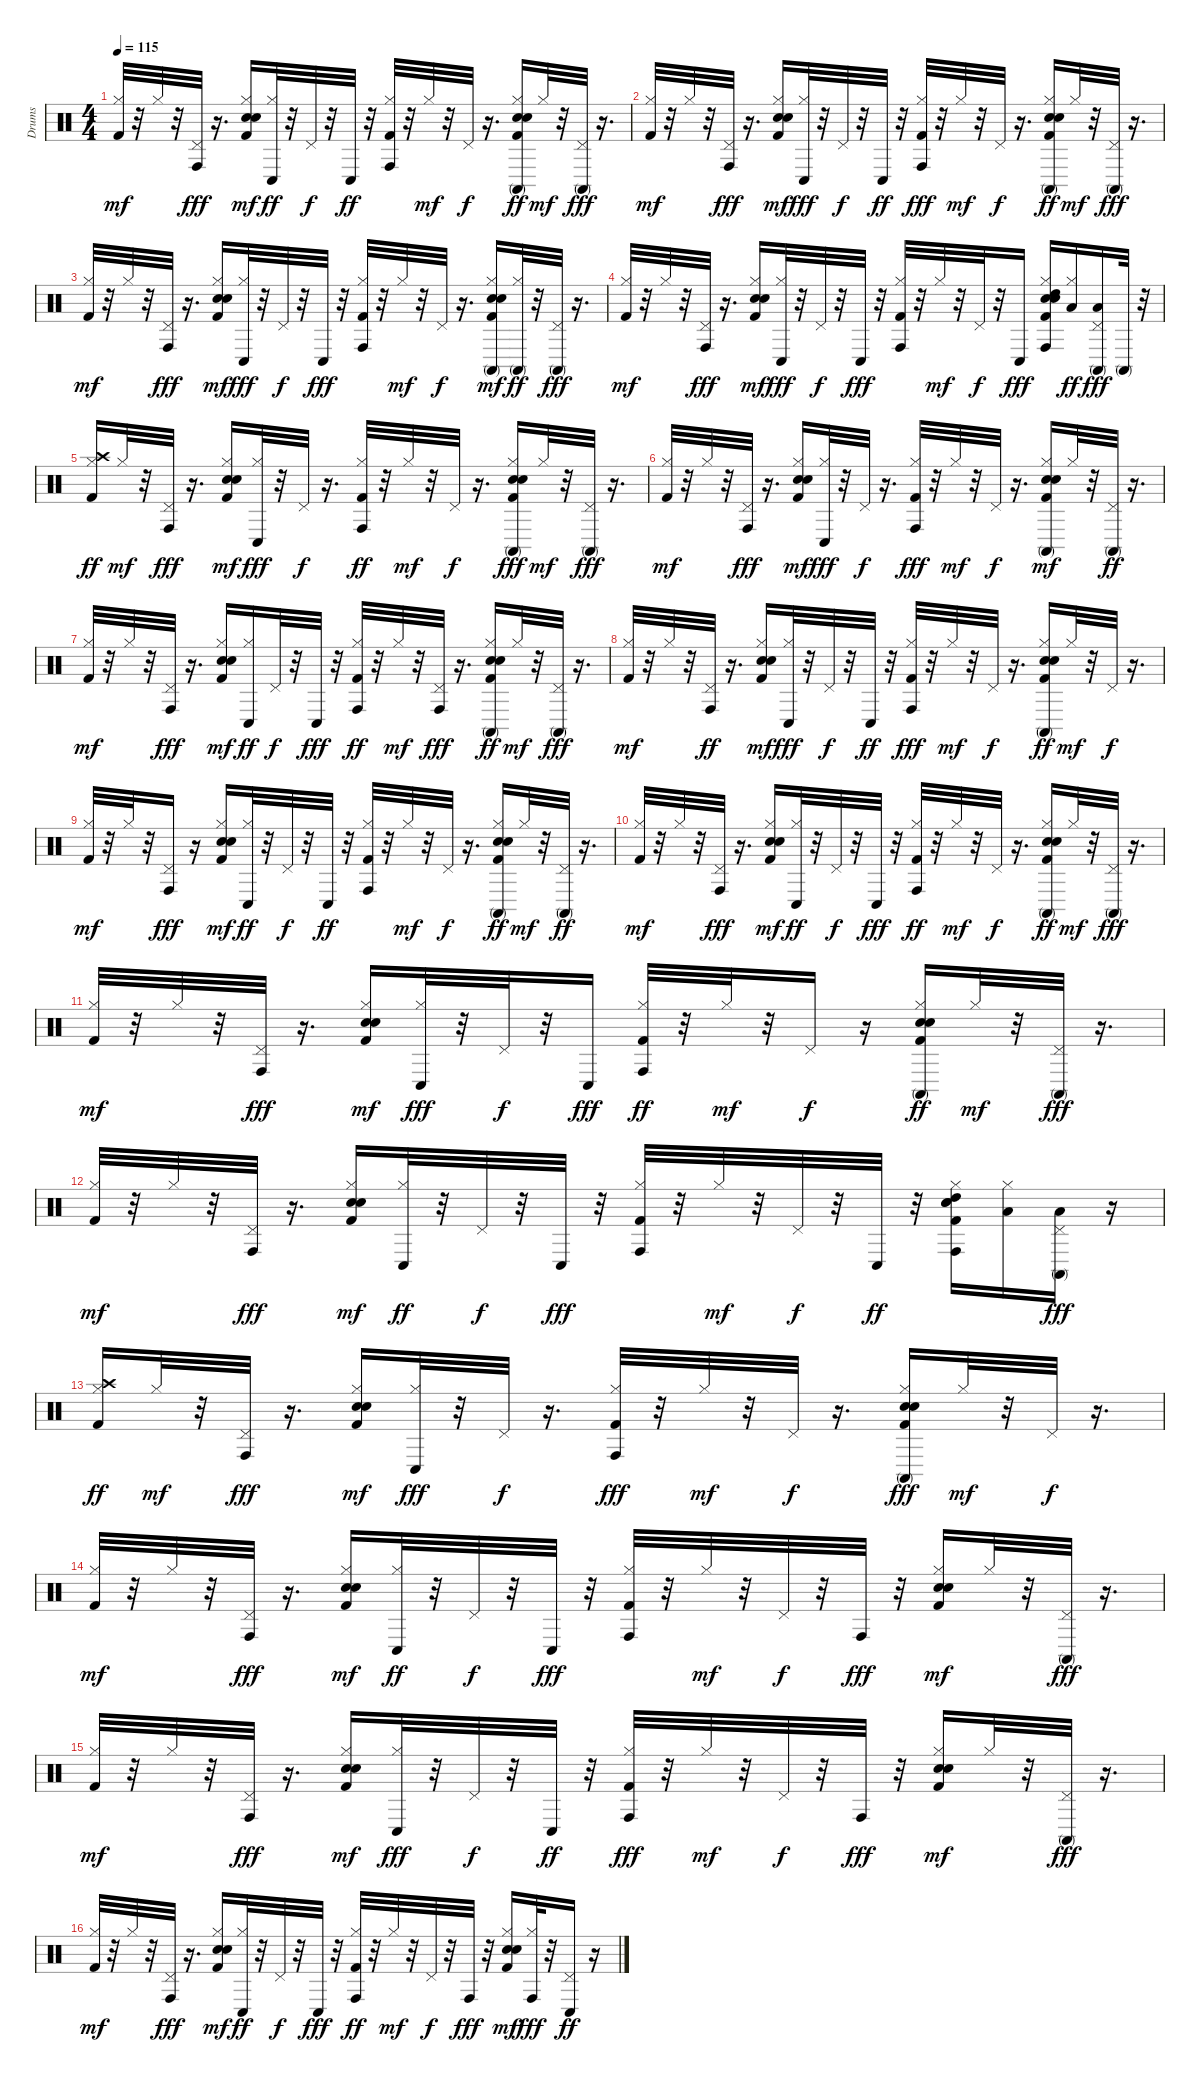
\track ("Drums" "Drums") {instrument percussion}
\staff {score}
\articulation defaults
\ts (4 4)
\tempo 115
\clef neutral
\ks c
("Kick (hit) 2" "Hi-Hat (closed)").32{dy mf} r.32 "Hi-Hat (closed)".32 r.32 ("Pedal Hi-Hat (hit)" "Conga high (hit)").32{dy fff} r.16{d} ("Kick (hit) 2" "Snare (hit) 2" "Hand Clap (hit)" "Hi-Hat (closed)").16{dy mf} ("Hi-Hat (closed)" "Conga low (hit)").32{dy ff} r.32 "Pedal Hi-Hat (hit)".32{dy f} r.32 "Conga low (hit)".32{dy ff} r.32 ("Kick (hit) 2" "Hi-Hat (closed)" "Conga high (hit)").32 r.32 "Hi-Hat (closed)".32{dy mf} r.32 "Pedal Hi-Hat (hit)".32{dy f} r.16{d} ("Kick (hit) 2" "Snare (hit) 2" "Hand Clap (hit)" "Hi-Hat (closed)" "Conga high (mute)").16{dy ff} "Hi-Hat (closed)".32{dy mf} r.32 ("Pedal Hi-Hat (hit)" "Conga high (mute)").32{dy fff} r.16{d} |
("Kick (hit) 2" "Hi-Hat (closed)").32{dy mf} r.32 "Hi-Hat (closed)".32 r.32 ("Pedal Hi-Hat (hit)" "Conga high (hit)").32{dy fff} r.16{d} ("Kick (hit) 2" "Snare (hit) 2" "Hand Clap (hit)" "Hi-Hat (closed)").16{dy mf} ("Hi-Hat (closed)" "Conga low (hit)").32{dy fff} r.32 "Pedal Hi-Hat (hit)".32{dy f} r.32 "Conga low (hit)".32{dy ff} r.32 ("Kick (hit) 2" "Hi-Hat (closed)" "Conga high (hit)").32{dy fff} r.32 "Hi-Hat (closed)".32{dy mf} r.32 "Pedal Hi-Hat (hit)".32{dy f} r.16{d} ("Kick (hit) 2" "Snare (hit) 2" "Hand Clap (hit)" "Hi-Hat (closed)" "Conga high (mute)").16{dy ff} "Hi-Hat (closed)".32{dy mf} r.32 ("Pedal Hi-Hat (hit)" "Conga high (mute)").32{dy fff} r.16{d} |
("Kick (hit) 2" "Hi-Hat (closed)").32{dy mf} r.32 "Hi-Hat (closed)".32 r.32 ("Pedal Hi-Hat (hit)" "Conga high (hit)").32{dy fff} r.16{d} ("Kick (hit) 2" "Snare (hit) 2" "Hand Clap (hit)" "Hi-Hat (closed)").16{dy mf} ("Hi-Hat (closed)" "Conga low (hit)").32{dy fff} r.32 "Pedal Hi-Hat (hit)".32{dy f} r.32 "Conga low (hit)".32{dy fff} r.32 ("Kick (hit) 2" "Hi-Hat (closed)" "Conga high (hit)").32 r.32 "Hi-Hat (closed)".32{dy mf} r.32 "Pedal Hi-Hat (hit)".32{dy f} r.16{d} ("Kick (hit) 2" "Snare (hit) 2" "Hand Clap (hit)" "Hi-Hat (closed)" "Conga high (mute)").16{dy mf} ("Hi-Hat (closed)" "Conga high (mute)").32{dy ff} r.32 ("Pedal Hi-Hat (hit)" "Conga high (mute)").32{dy fff} r.16{d} |
("Kick (hit) 2" "Hi-Hat (closed)").32{dy mf} r.32 "Hi-Hat (closed)".32 r.32 ("Pedal Hi-Hat (hit)" "Conga high (hit)").32{dy fff} r.16{d} ("Kick (hit) 2" "Snare (hit) 2" "Hand Clap (hit)" "Hi-Hat (closed)").16{dy mf} ("Hi-Hat (closed)" "Conga low (hit)").32{dy fff} r.32 "Pedal Hi-Hat (hit)".32{dy f} r.32 "Conga low (hit)".32{dy fff} r.32 ("Kick (hit) 2" "Hi-Hat (closed)" "Conga high (hit)").32 r.32 "Hi-Hat (closed)".32{dy mf} r.32 "Pedal Hi-Hat (hit)".32{dy f} r.32 "Conga low (hit)".16{dy fff} ("Kick (hit) 2" "Snare (hit) 2" "Hand Clap (hit)" "Hi-Hat (closed)" "High Tom (hit)" "Conga high (hit)").16 ("Hi-Hat (closed)" "Low Tom (hit)").16{dy ff} ("Pedal Hi-Hat (hit)" "Low Floor Tom (hit)" "Conga high (mute)").16{dy fff} "Conga high (mute)".32 r.32 |
("Kick (hit) 2" "Hi-Hat (closed)" "Crash high (hit)").16{dy ff} "Hi-Hat (closed)".32{dy mf} r.32 ("Pedal Hi-Hat (hit)" "Conga high (hit)").32{dy fff} r.16{d} ("Kick (hit) 2" "Snare (hit) 2" "Hand Clap (hit)" "Hi-Hat (closed)").16{dy mf} ("Hi-Hat (closed)" "Conga low (hit)").32{dy fff} r.32 "Pedal Hi-Hat (hit)".32{dy f} r.16{d} ("Kick (hit) 2" "Hi-Hat (closed)" "Conga high (hit)").32{dy ff} r.32 "Hi-Hat (closed)".32{dy mf} r.32 "Pedal Hi-Hat (hit)".32{dy f} r.16{d} ("Kick (hit) 2" "Snare (hit) 2" "Hand Clap (hit)" "Hi-Hat (closed)" "Conga high (mute)").16{dy fff} "Hi-Hat (closed)".32{dy mf} r.32 ("Pedal Hi-Hat (hit)" "Conga high (mute)").32{dy fff} r.16{d} |
("Kick (hit) 2" "Hi-Hat (closed)").32{dy mf} r.32 "Hi-Hat (closed)".32 r.32 ("Pedal Hi-Hat (hit)" "Conga high (hit)").32{dy fff} r.16{d} ("Kick (hit) 2" "Snare (hit) 2" "Hand Clap (hit)" "Hi-Hat (closed)").16{dy mf} ("Hi-Hat (closed)" "Conga low (hit)").32{dy fff} r.32 "Pedal Hi-Hat (hit)".32{dy f} r.16{d} ("Kick (hit) 2" "Hi-Hat (closed)" "Conga high (hit)").32{dy fff} r.32 "Hi-Hat (closed)".32{dy mf} r.32 "Pedal Hi-Hat (hit)".32{dy f} r.16{d} ("Kick (hit) 2" "Snare (hit) 2" "Hand Clap (hit)" "Hi-Hat (closed)" "Conga high (mute)").16{dy mf} "Hi-Hat (closed)".32 r.32 ("Pedal Hi-Hat (hit)" "Conga high (mute)").32{dy ff} r.16{d} |
("Kick (hit) 2" "Hi-Hat (closed)").32{dy mf} r.32 "Hi-Hat (closed)".32 r.32 ("Pedal Hi-Hat (hit)" "Conga high (hit)").32{dy fff} r.16{d} ("Kick (hit) 2" "Snare (hit) 2" "Hand Clap (hit)" "Hi-Hat (closed)").16{dy mf} ("Hi-Hat (closed)" "Conga low (hit)").16{dy ff} "Pedal Hi-Hat (hit)".32{dy f} r.32 "Conga low (hit)".32{dy fff} r.32 ("Kick (hit) 2" "Hi-Hat (closed)" "Conga high (hit)").32{dy ff} r.32 "Hi-Hat (closed)".32{dy mf} r.32 ("Pedal Hi-Hat (hit)" "Conga high (hit)").32{dy fff} r.16{d} ("Kick (hit) 2" "Snare (hit) 2" "Hand Clap (hit)" "Hi-Hat (closed)" "Conga high (mute)").16{dy ff} "Hi-Hat (closed)".32{dy mf} r.32 ("Pedal Hi-Hat (hit)" "Conga high (mute)").32{dy fff} r.16{d} |
("Kick (hit) 2" "Hi-Hat (closed)").32{dy mf} r.32 "Hi-Hat (closed)".32 r.32 ("Pedal Hi-Hat (hit)" "Conga high (hit)").32{dy ff} r.16{d} ("Kick (hit) 2" "Snare (hit) 2" "Hand Clap (hit)" "Hi-Hat (closed)").16{dy mf} ("Hi-Hat (closed)" "Conga low (hit)").32{dy fff} r.32 "Pedal Hi-Hat (hit)".32{dy f} r.32 "Conga low (hit)".32{dy ff} r.32 ("Kick (hit) 2" "Hi-Hat (closed)" "Conga high (hit)").32{dy fff} r.32 "Hi-Hat (closed)".32{dy mf} r.32 "Pedal Hi-Hat (hit)".32{dy f} r.16{d} ("Kick (hit) 2" "Snare (hit) 2" "Hand Clap (hit)" "Hi-Hat (closed)" "Conga high (mute)").16{dy ff} "Hi-Hat (closed)".32{dy mf} r.32 "Pedal Hi-Hat (hit)".32{dy f} r.16{d} |
("Kick (hit) 2" "Hi-Hat (closed)").32{dy mf} r.32 "Hi-Hat (closed)".32 r.32 ("Pedal Hi-Hat (hit)" "Conga high (hit)").16{dy fff} r.16 ("Kick (hit) 2" "Snare (hit) 2" "Hand Clap (hit)" "Hi-Hat (closed)").16{dy mf} ("Hi-Hat (closed)" "Conga low (hit)").32{dy ff} r.32 "Pedal Hi-Hat (hit)".32{dy f} r.32 "Conga low (hit)".32{dy ff} r.32 ("Kick (hit) 2" "Hi-Hat (closed)" "Conga high (hit)").32 r.32 "Hi-Hat (closed)".32{dy mf} r.32 "Pedal Hi-Hat (hit)".32{dy f} r.16{d} ("Kick (hit) 2" "Snare (hit) 2" "Hand Clap (hit)" "Hi-Hat (closed)" "Conga high (mute)").16{dy ff} "Hi-Hat (closed)".32{dy mf} r.32 ("Pedal Hi-Hat (hit)" "Conga high (mute)").32{dy ff} r.16{d} |
("Kick (hit) 2" "Hi-Hat (closed)").32{dy mf} r.32 "Hi-Hat (closed)".32 r.32 ("Pedal Hi-Hat (hit)" "Conga high (hit)").32{dy fff} r.16{d} ("Kick (hit) 2" "Snare (hit) 2" "Hand Clap (hit)" "Hi-Hat (closed)").16{dy mf} ("Hi-Hat (closed)" "Conga low (hit)").32{dy ff} r.32 "Pedal Hi-Hat (hit)".32{dy f} r.32 "Conga low (hit)".32{dy fff} r.32 ("Kick (hit) 2" "Hi-Hat (closed)" "Conga high (hit)").32{dy ff} r.32 "Hi-Hat (closed)".32{dy mf} r.32 "Pedal Hi-Hat (hit)".32{dy f} r.16{d} ("Kick (hit) 2" "Snare (hit) 2" "Hand Clap (hit)" "Hi-Hat (closed)" "Conga high (mute)").16{dy ff} "Hi-Hat (closed)".32{dy mf} r.32 ("Pedal Hi-Hat (hit)" "Conga high (mute)").32{dy fff} r.16{d} |
("Kick (hit) 2" "Hi-Hat (closed)").32{dy mf} r.32 "Hi-Hat (closed)".32 r.32 ("Pedal Hi-Hat (hit)" "Conga high (hit)").32{dy fff} r.16{d} ("Kick (hit) 2" "Snare (hit) 2" "Hand Clap (hit)" "Hi-Hat (closed)").16{dy mf} ("Hi-Hat (closed)" "Conga low (hit)").32{dy fff} r.32 "Pedal Hi-Hat (hit)".32{dy f} r.32 "Conga low (hit)".16{dy fff} ("Kick (hit) 2" "Hi-Hat (closed)" "Conga high (hit)").32{dy ff} r.32 "Hi-Hat (closed)".32{dy mf} r.32 "Pedal Hi-Hat (hit)".16{dy f} r.16 ("Kick (hit) 2" "Snare (hit) 2" "Hand Clap (hit)" "Hi-Hat (closed)" "Conga high (mute)").16{dy ff} "Hi-Hat (closed)".32{dy mf} r.32 ("Pedal Hi-Hat (hit)" "Conga high (mute)").32{dy fff} r.16{d} |
("Kick (hit) 2" "Hi-Hat (closed)").32{dy mf} r.32 "Hi-Hat (closed)".32 r.32 ("Pedal Hi-Hat (hit)" "Conga high (hit)").32{dy fff} r.16{d} ("Kick (hit) 2" "Snare (hit) 2" "Hand Clap (hit)" "Hi-Hat (closed)").16{dy mf} ("Hi-Hat (closed)" "Conga low (hit)").32{dy ff} r.32 "Pedal Hi-Hat (hit)".32{dy f} r.32 "Conga low (hit)".32{dy fff} r.32 ("Kick (hit) 2" "Hi-Hat (closed)" "Conga high (hit)").32 r.32 "Hi-Hat (closed)".32{dy mf} r.32 "Pedal Hi-Hat (hit)".32{dy f} r.32 "Conga low (hit)".32{dy ff} r.32 ("Kick (hit) 2" "Snare (hit) 2" "Hand Clap (hit)" "Hi-Hat (closed)" "High Tom (hit)" "Conga high (hit)").16 ("Hi-Hat (closed)" "Low Tom (hit)").16 ("Pedal Hi-Hat (hit)" "Low Floor Tom (hit)" "Conga high (mute)").16{dy fff} r.16 |
("Kick (hit) 2" "Hi-Hat (closed)" "Crash high (hit)").16{dy ff} "Hi-Hat (closed)".32{dy mf} r.32 ("Pedal Hi-Hat (hit)" "Conga high (hit)").32{dy fff} r.16{d} ("Kick (hit) 2" "Snare (hit) 2" "Hand Clap (hit)" "Hi-Hat (closed)").16{dy mf} ("Hi-Hat (closed)" "Conga low (hit)").32{dy fff} r.32 "Pedal Hi-Hat (hit)".32{dy f} r.16{d} ("Kick (hit) 2" "Hi-Hat (closed)" "Conga high (hit)").32{dy fff} r.32 "Hi-Hat (closed)".32{dy mf} r.32 "Pedal Hi-Hat (hit)".32{dy f} r.16{d} ("Kick (hit) 2" "Snare (hit) 2" "Hand Clap (hit)" "Hi-Hat (closed)" "Conga high (mute)").16{dy fff} "Hi-Hat (closed)".32{dy mf} r.32 "Pedal Hi-Hat (hit)".32{dy f} r.16{d} |
("Kick (hit) 2" "Hi-Hat (closed)").32{dy mf} r.32 "Hi-Hat (closed)".32 r.32 ("Pedal Hi-Hat (hit)" "Conga high (hit)").32{dy fff} r.16{d} ("Kick (hit) 2" "Snare (hit) 2" "Hand Clap (hit)" "Hi-Hat (closed)").16{dy mf} ("Hi-Hat (closed)" "Conga low (hit)").32{dy ff} r.32 "Pedal Hi-Hat (hit)".32{dy f} r.32 "Conga low (hit)".32{dy fff} r.32 ("Kick (hit) 2" "Hi-Hat (closed)" "Conga high (hit)").32 r.32 "Hi-Hat (closed)".32{dy mf} r.32 "Pedal Hi-Hat (hit)".32{dy f} r.32 "Conga high (hit)".32{dy fff} r.32 ("Kick (hit) 2" "Snare (hit) 2" "Hand Clap (hit)" "Hi-Hat (closed)").16{dy mf} "Hi-Hat (closed)".32 r.32 ("Pedal Hi-Hat (hit)" "Conga high (mute)").32{dy fff} r.16{d} |
("Kick (hit) 2" "Hi-Hat (closed)").32{dy mf} r.32 "Hi-Hat (closed)".32 r.32 ("Pedal Hi-Hat (hit)" "Conga high (hit)").32{dy fff} r.16{d} ("Kick (hit) 2" "Snare (hit) 2" "Hand Clap (hit)" "Hi-Hat (closed)").16{dy mf} ("Hi-Hat (closed)" "Conga low (hit)").32{dy fff} r.32 "Pedal Hi-Hat (hit)".32{dy f} r.32 "Conga low (hit)".32{dy ff} r.32 ("Kick (hit) 2" "Hi-Hat (closed)" "Conga high (hit)").32{dy fff} r.32 "Hi-Hat (closed)".32{dy mf} r.32 "Pedal Hi-Hat (hit)".32{dy f} r.32 "Conga high (hit)".32{dy fff} r.32 ("Kick (hit) 2" "Snare (hit) 2" "Hand Clap (hit)" "Hi-Hat (closed)").16{dy mf} "Hi-Hat (closed)".32 r.32 ("Pedal Hi-Hat (hit)" "Conga high (mute)").32{dy fff} r.16{d} |
("Kick (hit) 2" "Hi-Hat (closed)").32{dy mf} r.32 "Hi-Hat (closed)".32 r.32 ("Pedal Hi-Hat (hit)" "Conga high (hit)").32{dy fff} r.16{d} ("Kick (hit) 2" "Snare (hit) 2" "Hand Clap (hit)" "Hi-Hat (closed)").16{dy mf} ("Hi-Hat (closed)" "Conga low (hit)").32{dy ff} r.32 "Pedal Hi-Hat (hit)".32{dy f} r.32 "Conga low (hit)".32{dy fff} r.32 ("Kick (hit) 2" "Hi-Hat (closed)" "Conga high (hit)").32{dy ff} r.32 "Hi-Hat (closed)".32{dy mf} r.32 "Pedal Hi-Hat (hit)".32{dy f} r.32 "Conga high (hit)".32{dy fff} r.32 ("Kick (hit) 2" "Snare (hit) 2" "Hand Clap (hit)" "Hi-Hat (closed)").16{dy mf} ("Hi-Hat (closed)" "Conga high (hit)").32{dy fff} r.32 ("Pedal Hi-Hat (hit)" "Conga low (hit)").16{dy ff} r.16
